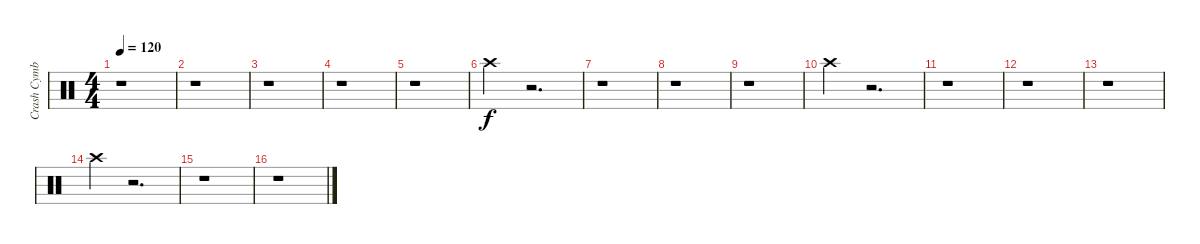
\track ("Crash Cymbal" "Crash Cymb") {instrument percussion}
\staff {score}
\articulation defaults
\ts (4 4)
\tempo 120
\clef neutral
\ks c
r.1{dy f} |
r.1 |
r.1 |
r.1 |
r.1 |
"Crash high (hit)".4 r.2{d} |
r.1 |
r.1 |
r.1 |
"Crash high (hit)".4 r.2{d} |
r.1 |
r.1 |
r.1 |
"Crash high (hit)".4 r.2{d} |
r.1 |
r.1
